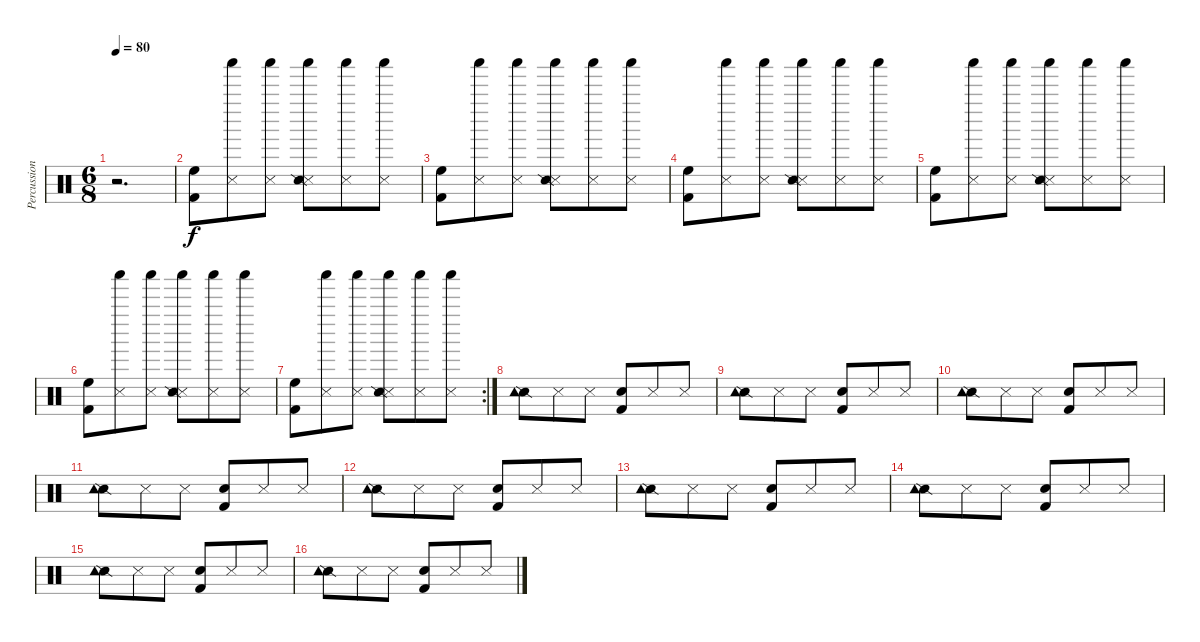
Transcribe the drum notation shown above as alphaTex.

\track ("Percussion" "Percussion") {instrument percussion}
\staff {score}
\articulation defaults
\ts (6 8)
\tempo 80
\clef neutral
\ks c
r.2{d dy f} |
("Kick (hit) 2" "High Floor Tom (hit)").8 ("Snare (side stick) 3" "Shaker (hit)").8 ("Snare (side stick) 3" "Shaker (hit)").8 ("Snare (side stick) 3" "Shaker (hit)" "Snare (side stick) 2").8 ("Snare (side stick) 3" "Shaker (hit)").8 ("Snare (side stick) 3" "Shaker (hit)").8 |
("Kick (hit) 2" "High Floor Tom (hit)").8 ("Snare (side stick) 3" "Shaker (hit)").8 ("Snare (side stick) 3" "Shaker (hit)").8 ("Snare (side stick) 3" "Shaker (hit)" "Snare (side stick) 2").8 ("Snare (side stick) 3" "Shaker (hit)").8 ("Snare (side stick) 3" "Shaker (hit)").8 |
("Kick (hit) 2" "High Floor Tom (hit)").8 ("Snare (side stick) 3" "Shaker (hit)").8 ("Snare (side stick) 3" "Shaker (hit)").8 ("Snare (side stick) 3" "Shaker (hit)" "Snare (side stick) 2").8 ("Snare (side stick) 3" "Shaker (hit)").8 ("Snare (side stick) 3" "Shaker (hit)").8 |
("Kick (hit) 2" "High Floor Tom (hit)").8 ("Snare (side stick) 3" "Shaker (hit)").8 ("Snare (side stick) 3" "Shaker (hit)").8 ("Snare (side stick) 3" "Shaker (hit)" "Snare (side stick) 2").8 ("Snare (side stick) 3" "Shaker (hit)").8 ("Snare (side stick) 3" "Shaker (hit)").8 |
("Kick (hit) 2" "High Floor Tom (hit)").8 ("Snare (side stick) 3" "Shaker (hit)").8 ("Snare (side stick) 3" "Shaker (hit)").8 ("Snare (side stick) 3" "Shaker (hit)" "Snare (side stick) 2").8 ("Snare (side stick) 3" "Shaker (hit)").8 ("Snare (side stick) 3" "Shaker (hit)").8 |
\rc 2
("Kick (hit) 2" "High Floor Tom (hit)").8 ("Snare (side stick) 3" "Shaker (hit)").8 ("Snare (side stick) 3" "Shaker (hit)").8 ("Snare (side stick) 3" "Shaker (hit)" "Snare (side stick) 2").8 ("Snare (side stick) 3" "Shaker (hit)").8 ("Snare (side stick) 3" "Shaker (hit)").8 |
("Snare (side stick) 2" "Tambourine (hit)").8 "Snare (side stick) 3".8 "Snare (side stick) 3".8 ("Kick (hit) 2" "Snare (hit)").8 "Snare (side stick) 3".8 "Snare (side stick) 3".8 |
("Snare (side stick) 2" "Tambourine (hit)").8 "Snare (side stick) 3".8 "Snare (side stick) 3".8 ("Kick (hit) 2" "Snare (hit) 2").8 "Snare (side stick) 3".8 "Snare (side stick) 3".8 |
("Snare (side stick) 2" "Tambourine (hit)").8 "Snare (side stick) 3".8 "Snare (side stick) 3".8 ("Kick (hit) 2" "Snare (hit)").8 "Snare (side stick) 3".8 "Snare (side stick) 3".8 |
("Snare (side stick) 2" "Tambourine (hit)").8 "Snare (side stick) 3".8 "Snare (side stick) 3".8 ("Kick (hit) 2" "Snare (hit) 2").8 "Snare (side stick) 3".8 "Snare (side stick) 3".8 |
("Snare (side stick) 2" "Tambourine (hit)").8 "Snare (side stick) 3".8 "Snare (side stick) 3".8 ("Kick (hit) 2" "Snare (hit)").8 "Snare (side stick) 3".8 "Snare (side stick) 3".8 |
("Snare (side stick) 2" "Tambourine (hit)").8 "Snare (side stick) 3".8 "Snare (side stick) 3".8 ("Kick (hit) 2" "Snare (hit) 2").8 "Snare (side stick) 3".8 "Snare (side stick) 3".8 |
("Snare (side stick) 2" "Tambourine (hit)").8 "Snare (side stick) 3".8 "Snare (side stick) 3".8 ("Kick (hit) 2" "Snare (hit)").8 "Snare (side stick) 3".8 "Snare (side stick) 3".8 |
("Snare (side stick) 2" "Tambourine (hit)").8 "Snare (side stick) 3".8 "Snare (side stick) 3".8 ("Kick (hit) 2" "Snare (hit) 2").8 "Snare (side stick) 3".8 "Snare (side stick) 3".8 |
("Snare (side stick) 2" "Tambourine (hit)").8 "Snare (side stick) 3".8 "Snare (side stick) 3".8 ("Kick (hit) 2" "Snare (hit)").8 "Snare (side stick) 3".8 "Snare (side stick) 3".8
